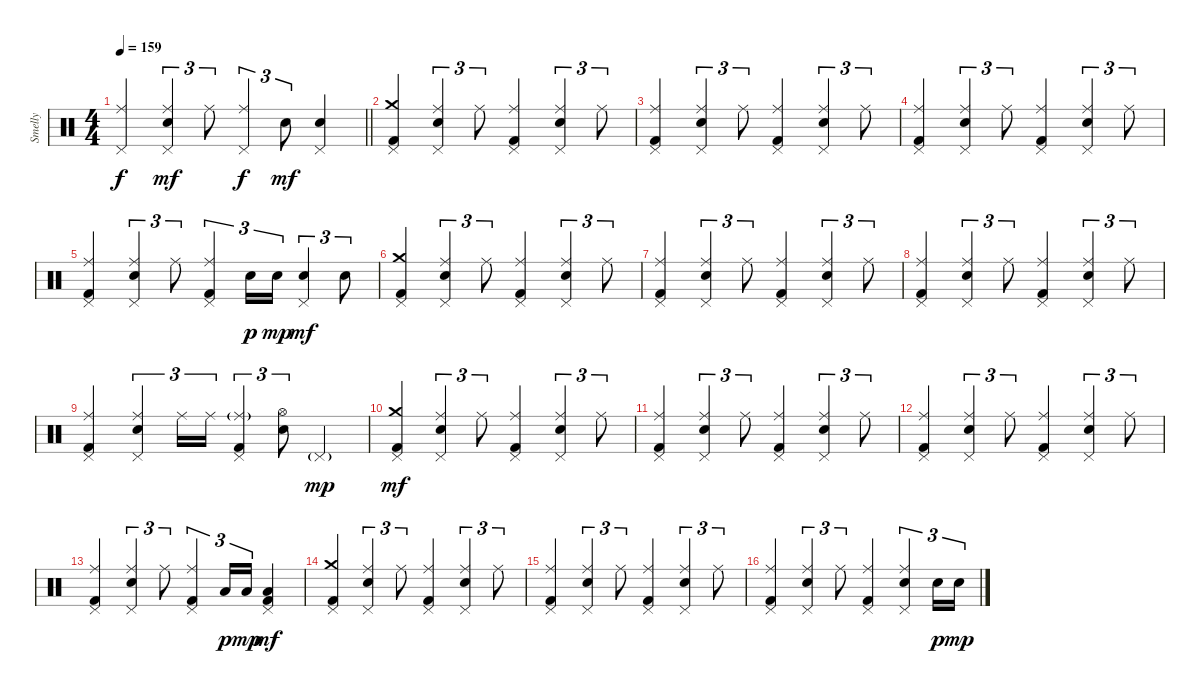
\track ("Smelly" "Smelly") {instrument percussion}
\staff {score}
\articulation defaults
\ts (4 4)
\tempo 159
\clef neutral
\barLineRight lightlight
\ks c
("Pedal Hi-Hat (hit)" "Ride (middle)").4{dy f} ("Pedal Hi-Hat (hit)" "Ride (middle)" "Electric Snare (hit)").4{tu (3 2) dy mf} "Ride (middle)".8{tu (3 2)} ("Pedal Hi-Hat (hit)" "Ride (middle)").4{tu (3 2) dy f} "Electric Snare (hit)".8{tu (3 2) dy mf} ("Pedal Hi-Hat (hit)" "Electric Snare (hit)").4 |
\section ("" "")
("Pedal Hi-Hat (hit)" "Crash medium (hit)" "Kick (hit) 2").4 ("Pedal Hi-Hat (hit)" "Ride (middle)" "Electric Snare (hit)").4{tu (3 2)} "Ride (middle)".8{tu (3 2)} ("Pedal Hi-Hat (hit)" "Ride (middle)" "Kick (hit) 2").4 ("Pedal Hi-Hat (hit)" "Ride (middle)" "Electric Snare (hit)").4{tu (3 2)} "Ride (middle)".8{tu (3 2)} |
("Pedal Hi-Hat (hit)" "Ride (middle)" "Kick (hit) 2").4 ("Pedal Hi-Hat (hit)" "Ride (middle)" "Electric Snare (hit)").4{tu (3 2)} "Ride (middle)".8{tu (3 2)} ("Pedal Hi-Hat (hit)" "Ride (middle)" "Kick (hit) 2").4 ("Pedal Hi-Hat (hit)" "Ride (middle)" "Electric Snare (hit)").4{tu (3 2)} "Ride (middle)".8{tu (3 2)} |
("Pedal Hi-Hat (hit)" "Ride (middle)" "Kick (hit) 2").4 ("Pedal Hi-Hat (hit)" "Ride (middle)" "Electric Snare (hit)").4{tu (3 2)} "Ride (middle)".8{tu (3 2)} ("Pedal Hi-Hat (hit)" "Ride (middle)" "Kick (hit) 2").4 ("Pedal Hi-Hat (hit)" "Ride (middle)" "Electric Snare (hit)").4{tu (3 2)} "Ride (middle)".8{tu (3 2)} |
("Pedal Hi-Hat (hit)" "Ride (middle)" "Kick (hit) 2").4 ("Pedal Hi-Hat (hit)" "Ride (middle)" "Electric Snare (hit)").4{tu (3 2)} "Ride (middle)".8{tu (3 2)} ("Pedal Hi-Hat (hit)" "Ride (middle)" "Kick (hit) 2").4{tu (3 2)} "Electric Snare (hit)".16{tu (3 2) dy p} "Electric Snare (hit)".16{tu (3 2) dy mp} ("Pedal Hi-Hat (hit)" "Electric Snare (hit)").4{tu (3 2) dy mf} "Electric Snare (hit)".8{tu (3 2)} |
("Pedal Hi-Hat (hit)" "Crash medium (hit)" "Kick (hit) 2").4 ("Pedal Hi-Hat (hit)" "Ride (middle)" "Electric Snare (hit)").4{tu (3 2)} "Ride (middle)".8{tu (3 2)} ("Pedal Hi-Hat (hit)" "Ride (middle)" "Kick (hit) 2").4 ("Pedal Hi-Hat (hit)" "Ride (middle)" "Electric Snare (hit)").4{tu (3 2)} "Ride (middle)".8{tu (3 2)} |
("Pedal Hi-Hat (hit)" "Ride (middle)" "Kick (hit) 2").4 ("Pedal Hi-Hat (hit)" "Ride (middle)" "Electric Snare (hit)").4{tu (3 2)} "Ride (middle)".8{tu (3 2)} ("Pedal Hi-Hat (hit)" "Ride (middle)" "Kick (hit) 2").4 ("Pedal Hi-Hat (hit)" "Ride (middle)" "Electric Snare (hit)").4{tu (3 2)} "Ride (middle)".8{tu (3 2)} |
("Pedal Hi-Hat (hit)" "Ride (middle)" "Kick (hit) 2").4 ("Pedal Hi-Hat (hit)" "Ride (middle)" "Electric Snare (hit)").4{tu (3 2)} "Ride (middle)".8{tu (3 2)} ("Pedal Hi-Hat (hit)" "Ride (middle)" "Kick (hit) 2").4 ("Pedal Hi-Hat (hit)" "Ride (middle)" "Electric Snare (hit)").4{tu (3 2)} "Ride (middle)".8{tu (3 2)} |
("Pedal Hi-Hat (hit)" "Ride (middle)" "Kick (hit) 2").4 ("Pedal Hi-Hat (hit)" "Ride (middle)" "Electric Snare (hit)").4{tu (3 2)} "Ride (middle)".16{tu (3 2)} "Ride (middle)".16{tu (3 2)} ("Pedal Hi-Hat (hit)" "Ride (middle)"{g} "Kick (hit) 2").4{tu (3 2)} ("Hi-Hat (open)" "Electric Snare (hit)").8{tu (3 2)} "Pedal Hi-Hat (hit)"{g}.4{dy mp} |
("Pedal Hi-Hat (hit)" "Crash medium (hit)" "Kick (hit) 2").4{dy mf} ("Pedal Hi-Hat (hit)" "Ride (middle)" "Electric Snare (hit)").4{tu (3 2)} "Ride (middle)".8{tu (3 2)} ("Pedal Hi-Hat (hit)" "Ride (middle)" "Kick (hit) 2").4 ("Pedal Hi-Hat (hit)" "Ride (middle)" "Electric Snare (hit)").4{tu (3 2)} "Ride (middle)".8{tu (3 2)} |
("Pedal Hi-Hat (hit)" "Ride (middle)" "Kick (hit) 2").4 ("Pedal Hi-Hat (hit)" "Ride (middle)" "Electric Snare (hit)").4{tu (3 2)} "Ride (middle)".8{tu (3 2)} ("Pedal Hi-Hat (hit)" "Ride (middle)" "Kick (hit) 2").4 ("Pedal Hi-Hat (hit)" "Ride (middle)" "Electric Snare (hit)").4{tu (3 2)} "Ride (middle)".8{tu (3 2)} |
("Pedal Hi-Hat (hit)" "Ride (middle)" "Kick (hit) 2").4 ("Pedal Hi-Hat (hit)" "Ride (middle)" "Electric Snare (hit)").4{tu (3 2)} "Ride (middle)".8{tu (3 2)} ("Pedal Hi-Hat (hit)" "Ride (middle)" "Kick (hit) 2").4 ("Pedal Hi-Hat (hit)" "Ride (middle)" "Electric Snare (hit)").4{tu (3 2)} "Ride (middle)".8{tu (3 2)} |
("Pedal Hi-Hat (hit)" "Ride (middle)" "Kick (hit) 2").4 ("Pedal Hi-Hat (hit)" "Ride (middle)" "Electric Snare (hit)").4{tu (3 2)} "Ride (middle)".8{tu (3 2)} ("Pedal Hi-Hat (hit)" "Ride (middle)" "Kick (hit) 2").4{tu (3 2)} "Low Floor Tom (hit)".16{tu (3 2) dy p} "Low Floor Tom (hit)".16{tu (3 2) dy mp} ("Pedal Hi-Hat (hit)" "Low Floor Tom (hit)" "Kick (hit) 2").4{dy mf} |
("Pedal Hi-Hat (hit)" "Crash medium (hit)" "Kick (hit) 2").4 ("Pedal Hi-Hat (hit)" "Ride (middle)" "Electric Snare (hit)").4{tu (3 2)} "Ride (middle)".8{tu (3 2)} ("Pedal Hi-Hat (hit)" "Ride (middle)" "Kick (hit) 2").4 ("Pedal Hi-Hat (hit)" "Ride (middle)" "Electric Snare (hit)").4{tu (3 2)} "Ride (middle)".8{tu (3 2)} |
("Pedal Hi-Hat (hit)" "Ride (middle)" "Kick (hit) 2").4 ("Pedal Hi-Hat (hit)" "Ride (middle)" "Electric Snare (hit)").4{tu (3 2)} "Ride (middle)".8{tu (3 2)} ("Pedal Hi-Hat (hit)" "Ride (middle)" "Kick (hit) 2").4 ("Pedal Hi-Hat (hit)" "Ride (middle)" "Electric Snare (hit)").4{tu (3 2)} "Ride (middle)".8{tu (3 2)} |
("Pedal Hi-Hat (hit)" "Ride (middle)" "Kick (hit) 2").4 ("Pedal Hi-Hat (hit)" "Ride (middle)" "Electric Snare (hit)").4{tu (3 2)} "Ride (middle)".8{tu (3 2)} ("Pedal Hi-Hat (hit)" "Ride (middle)" "Kick (hit) 2").4 ("Pedal Hi-Hat (hit)" "Ride (middle)" "Electric Snare (hit)").4{tu (3 2)} "Electric Snare (hit)".16{tu (3 2) dy p} "Electric Snare (hit)".16{tu (3 2) dy mp}
